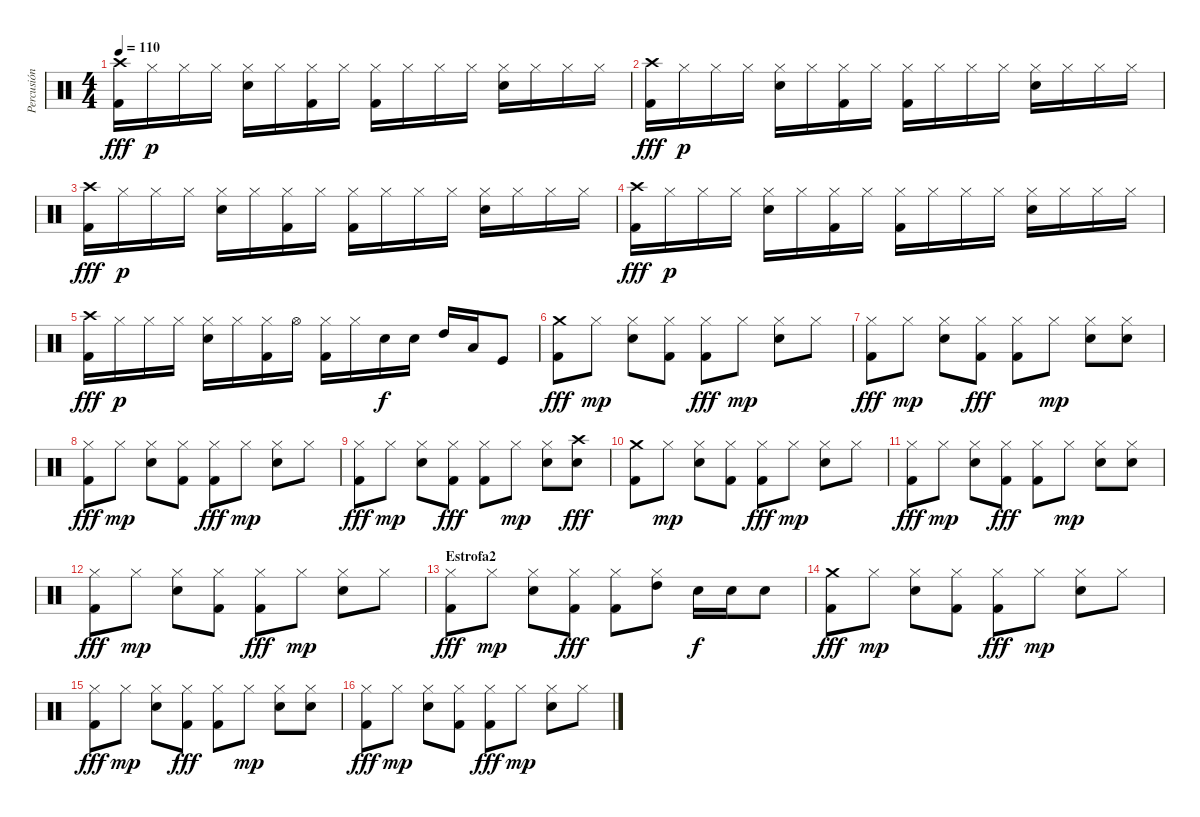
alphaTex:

\track ("Percusión" "Percusión") {instrument percussion}
\staff {score}
\articulation defaults
\ts (4 4)
\tempo 110
\clef neutral
\ks c
("Crash high (hit)" "Kick (hit) 2").16{dy fff} "Hi-Hat (closed)".16{dy p} "Hi-Hat (closed)".16 "Hi-Hat (closed)".16 ("Hi-Hat (closed)" "Snare (hit) 2").16 "Hi-Hat (closed)".16 ("Hi-Hat (closed)" "Kick (hit) 2").16 "Hi-Hat (closed)".16 ("Hi-Hat (closed)" "Kick (hit) 2").16 "Hi-Hat (closed)".16 "Hi-Hat (closed)".16 "Hi-Hat (closed)".16 ("Hi-Hat (closed)" "Snare (hit) 2").16 "Hi-Hat (closed)".16 "Hi-Hat (closed)".16 "Hi-Hat (closed)".16 |
("Crash high (hit)" "Kick (hit) 2").16{dy fff} "Hi-Hat (closed)".16{dy p} "Hi-Hat (closed)".16 "Hi-Hat (closed)".16 ("Hi-Hat (closed)" "Snare (hit) 2").16 "Hi-Hat (closed)".16 ("Hi-Hat (closed)" "Kick (hit) 2").16 "Hi-Hat (closed)".16 ("Hi-Hat (closed)" "Kick (hit) 2").16 "Hi-Hat (closed)".16 "Hi-Hat (closed)".16 "Hi-Hat (closed)".16 ("Hi-Hat (closed)" "Snare (hit) 2").16 "Hi-Hat (closed)".16 "Hi-Hat (closed)".16 "Hi-Hat (closed)".16 |
("Crash high (hit)" "Kick (hit) 2").16{dy fff} "Hi-Hat (closed)".16{dy p} "Hi-Hat (closed)".16 "Hi-Hat (closed)".16 ("Hi-Hat (closed)" "Snare (hit) 2").16 "Hi-Hat (closed)".16 ("Hi-Hat (closed)" "Kick (hit) 2").16 "Hi-Hat (closed)".16 ("Hi-Hat (closed)" "Kick (hit) 2").16 "Hi-Hat (closed)".16 "Hi-Hat (closed)".16 "Hi-Hat (closed)".16 ("Hi-Hat (closed)" "Snare (hit) 2").16 "Hi-Hat (closed)".16 "Hi-Hat (closed)".16 "Hi-Hat (closed)".16 |
("Crash high (hit)" "Kick (hit) 2").16{dy fff} "Hi-Hat (closed)".16{dy p} "Hi-Hat (closed)".16 "Hi-Hat (closed)".16 ("Hi-Hat (closed)" "Snare (hit) 2").16 "Hi-Hat (closed)".16 ("Hi-Hat (closed)" "Kick (hit) 2").16 "Hi-Hat (closed)".16 ("Hi-Hat (closed)" "Kick (hit) 2").16 "Hi-Hat (closed)".16 "Hi-Hat (closed)".16 "Hi-Hat (closed)".16 ("Hi-Hat (closed)" "Snare (hit) 2").16 "Hi-Hat (closed)".16 "Hi-Hat (closed)".16 "Hi-Hat (closed)".16 |
("Crash high (hit)" "Kick (hit) 2").16{dy fff} "Hi-Hat (closed)".16{dy p} "Hi-Hat (closed)".16 "Hi-Hat (closed)".16 ("Hi-Hat (closed)" "Snare (hit) 2").16 "Hi-Hat (closed)".16 ("Hi-Hat (closed)" "Kick (hit) 2").16 "Hi-Hat (open)".16 ("Hi-Hat (closed)" "Kick (hit) 2").16 "Hi-Hat (closed)".16 "Snare (hit) 2".16{dy f} "Snare (hit) 2".16 "High Tom (hit)".16 "Low Tom (hit)".16 "Kick (hit)".8 |
("Crash medium (hit)" "Kick (hit) 2").8{dy fff} "Hi-Hat (closed)".8{dy mp} ("Hi-Hat (closed)" "Snare (hit) 2").8 ("Hi-Hat (closed)" "Kick (hit) 2").8 ("Hi-Hat (closed)" "Kick (hit) 2").8{dy fff} "Hi-Hat (closed)".8{dy mp} ("Hi-Hat (closed)" "Snare (hit) 2").8 "Hi-Hat (closed)".8 |
("Hi-Hat (closed)" "Kick (hit) 2").8{dy fff} "Hi-Hat (closed)".8{dy mp} ("Hi-Hat (closed)" "Snare (hit) 2").8 ("Hi-Hat (closed)" "Kick (hit) 2").8{dy fff} ("Hi-Hat (closed)" "Kick (hit) 2").8 "Hi-Hat (closed)".8{dy mp} ("Hi-Hat (closed)" "Snare (hit) 2").8 ("Hi-Hat (closed)" "Snare (hit) 2").8 |
("Hi-Hat (closed)" "Kick (hit) 2").8{dy fff} "Hi-Hat (closed)".8{dy mp} ("Hi-Hat (closed)" "Snare (hit) 2").8 ("Hi-Hat (closed)" "Kick (hit) 2").8 ("Hi-Hat (closed)" "Kick (hit) 2").8{dy fff} "Hi-Hat (closed)".8{dy mp} ("Hi-Hat (closed)" "Snare (hit) 2").8 "Hi-Hat (closed)".8 |
("Hi-Hat (closed)" "Kick (hit) 2").8{dy fff} "Hi-Hat (closed)".8{dy mp} ("Hi-Hat (closed)" "Snare (hit) 2").8 ("Hi-Hat (closed)" "Kick (hit) 2").8{dy fff} ("Hi-Hat (closed)" "Kick (hit) 2").8 "Hi-Hat (closed)".8{dy mp} ("Hi-Hat (closed)" "Snare (hit) 2").8 ("Crash high (hit)" "Snare (hit) 2").8{dy fff} |
("Crash medium (hit)" "Kick (hit) 2").8 "Hi-Hat (closed)".8{dy mp} ("Hi-Hat (closed)" "Snare (hit) 2").8 ("Hi-Hat (closed)" "Kick (hit) 2").8 ("Hi-Hat (closed)" "Kick (hit) 2").8{dy fff} "Hi-Hat (closed)".8{dy mp} ("Hi-Hat (closed)" "Snare (hit) 2").8 "Hi-Hat (closed)".8 |
("Hi-Hat (closed)" "Kick (hit) 2").8{dy fff} "Hi-Hat (closed)".8{dy mp} ("Hi-Hat (closed)" "Snare (hit) 2").8 ("Hi-Hat (closed)" "Kick (hit) 2").8{dy fff} ("Hi-Hat (closed)" "Kick (hit) 2").8 "Hi-Hat (closed)".8{dy mp} ("Hi-Hat (closed)" "Snare (hit) 2").8 ("Hi-Hat (closed)" "Snare (hit) 2").8 |
("Hi-Hat (closed)" "Kick (hit) 2").8{dy fff} "Hi-Hat (closed)".8{dy mp} ("Hi-Hat (closed)" "Snare (hit) 2").8 ("Hi-Hat (closed)" "Kick (hit) 2").8 ("Hi-Hat (closed)" "Kick (hit) 2").8{dy fff} "Hi-Hat (closed)".8{dy mp} ("Hi-Hat (closed)" "Snare (hit) 2").8 "Hi-Hat (closed)".8 |
\section ("" "Estrofa2")
("Hi-Hat (closed)" "Kick (hit) 2").8{dy fff} "Hi-Hat (closed)".8{dy mp} ("Hi-Hat (closed)" "Snare (hit) 2").8 ("Hi-Hat (closed)" "Kick (hit) 2").8{dy fff} ("Hi-Hat (closed)" "Kick (hit) 2").8 ("Hi-Hat (closed)" "High Tom (hit)").8 "Snare (hit) 2".16{dy f} "Snare (hit) 2".16 "Snare (hit) 2".8 |
("Crash medium (hit)" "Kick (hit) 2").8{dy fff} "Hi-Hat (closed)".8{dy mp} ("Hi-Hat (closed)" "Snare (hit) 2").8 ("Hi-Hat (closed)" "Kick (hit) 2").8 ("Hi-Hat (closed)" "Kick (hit) 2").8{dy fff} "Hi-Hat (closed)".8{dy mp} ("Hi-Hat (closed)" "Snare (hit) 2").8 "Hi-Hat (closed)".8 |
("Hi-Hat (closed)" "Kick (hit) 2").8{dy fff} "Hi-Hat (closed)".8{dy mp} ("Hi-Hat (closed)" "Snare (hit) 2").8 ("Hi-Hat (closed)" "Kick (hit) 2").8{dy fff} ("Hi-Hat (closed)" "Kick (hit) 2").8 "Hi-Hat (closed)".8{dy mp} ("Hi-Hat (closed)" "Snare (hit) 2").8 ("Hi-Hat (closed)" "Snare (hit) 2").8 |
("Hi-Hat (closed)" "Kick (hit) 2").8{dy fff} "Hi-Hat (closed)".8{dy mp} ("Hi-Hat (closed)" "Snare (hit) 2").8 ("Hi-Hat (closed)" "Kick (hit) 2").8 ("Hi-Hat (closed)" "Kick (hit) 2").8{dy fff} "Hi-Hat (closed)".8{dy mp} ("Hi-Hat (closed)" "Snare (hit) 2").8 "Hi-Hat (closed)".8
